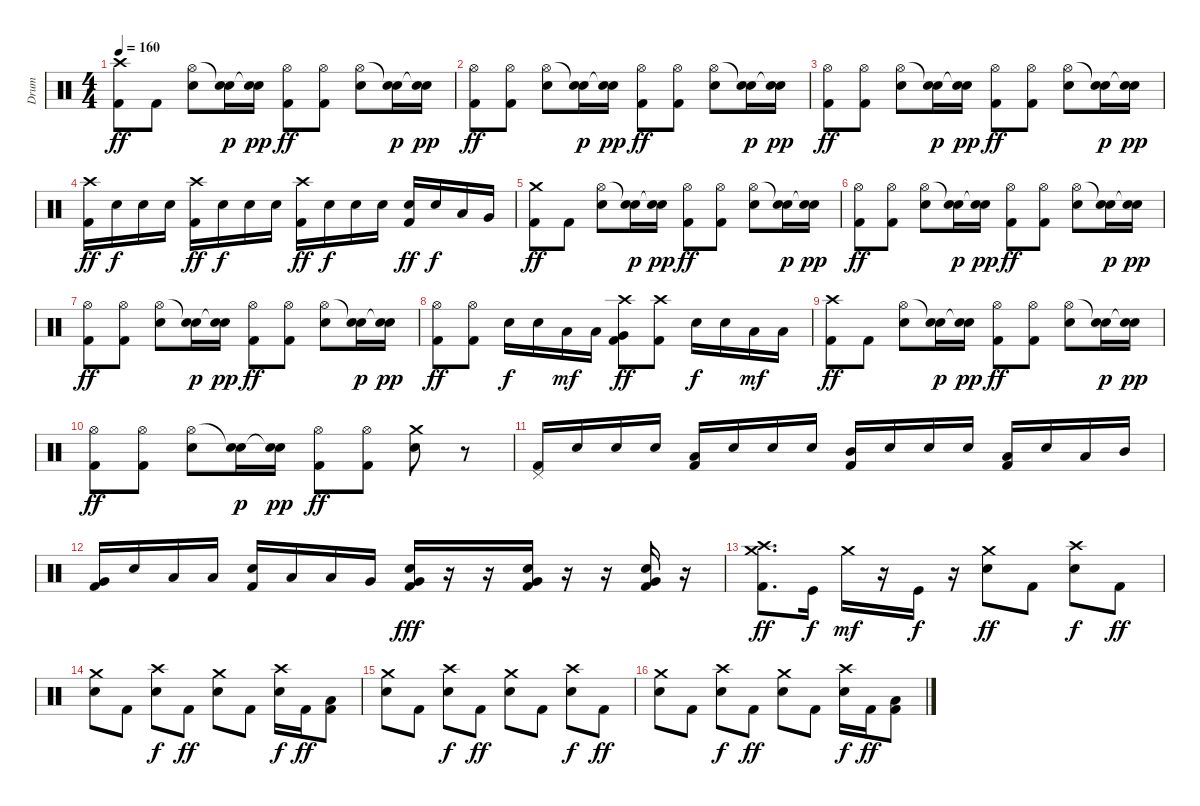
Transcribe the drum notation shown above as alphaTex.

\track ("Drum" "Drum") {instrument percussion}
\staff {score}
\articulation defaults
\ts (4 4)
\tempo 160
\clef neutral
\ks c
("Crash high (hit)" "Kick (hit) 2").8{dy ff} "Kick (hit) 2".8 ("Electric Snare (hit)" "Hi-Hat (open)").8 ("Electric Snare (hit)" "Snare (hit)"{t}).16{dy p} ("Electric Snare (hit)" "Snare (hit)"{t}).16{dy pp} ("Hi-Hat (open)" "Kick (hit) 2").8{dy ff} ("Hi-Hat (open)" "Kick (hit) 2").8 ("Electric Snare (hit)" "Hi-Hat (open)").8 ("Electric Snare (hit)" "Snare (hit)"{t}).16{dy p} ("Electric Snare (hit)" "Snare (hit)"{t}).16{dy pp} |
("Hi-Hat (open)" "Kick (hit) 2").8{dy ff} ("Hi-Hat (open)" "Kick (hit) 2").8 ("Electric Snare (hit)" "Hi-Hat (open)").8 ("Electric Snare (hit)" "Snare (hit)"{t}).16{dy p} ("Electric Snare (hit)" "Snare (hit)"{t}).16{dy pp} ("Hi-Hat (open)" "Kick (hit) 2").8{dy ff} ("Hi-Hat (open)" "Kick (hit) 2").8 ("Electric Snare (hit)" "Hi-Hat (open)").8 ("Electric Snare (hit)" "Snare (hit)"{t}).16{dy p} ("Electric Snare (hit)" "Snare (hit)"{t}).16{dy pp} |
("Hi-Hat (open)" "Kick (hit) 2").8{dy ff} ("Hi-Hat (open)" "Kick (hit) 2").8 ("Electric Snare (hit)" "Hi-Hat (open)").8 ("Electric Snare (hit)" "Snare (hit)"{t}).16{dy p} ("Electric Snare (hit)" "Snare (hit)"{t}).16{dy pp} ("Hi-Hat (open)" "Kick (hit) 2").8{dy ff} ("Hi-Hat (open)" "Kick (hit) 2").8 ("Electric Snare (hit)" "Hi-Hat (open)").8 ("Electric Snare (hit)" "Snare (hit)"{t}).16{dy p} ("Electric Snare (hit)" "Snare (hit)"{t}).16{dy pp} |
("Crash high (hit)" "Kick (hit) 2").16{dy ff} "Electric Snare (hit)".16{dy f} "Electric Snare (hit)".16 "Electric Snare (hit)".16 ("Crash high (hit)" "Kick (hit) 2").16{dy ff} "Electric Snare (hit)".16{dy f} "Electric Snare (hit)".16 "Electric Snare (hit)".16 ("Crash high (hit)" "Kick (hit) 2").16{dy ff} "Electric Snare (hit)".16{dy f} "Electric Snare (hit)".16 "Electric Snare (hit)".16 ("Electric Snare (hit)" "Kick (hit) 2").16{dy ff} "Electric Snare (hit)".16{dy f} "Low Tom (hit)".16 "Very Low Tom (hit)".16 |
("Crash medium (hit)" "Kick (hit) 2").8{dy ff} "Kick (hit) 2".8 ("Electric Snare (hit)" "Hi-Hat (open)").8 ("Electric Snare (hit)" "Snare (hit)"{t}).16{dy p} ("Electric Snare (hit)" "Snare (hit)"{t}).16{dy pp} ("Hi-Hat (open)" "Kick (hit) 2").8{dy ff} ("Hi-Hat (open)" "Kick (hit) 2").8 ("Electric Snare (hit)" "Hi-Hat (open)").8 ("Electric Snare (hit)" "Snare (hit)"{t}).16{dy p} ("Electric Snare (hit)" "Snare (hit)"{t}).16{dy pp} |
("Hi-Hat (open)" "Kick (hit) 2").8{dy ff} ("Hi-Hat (open)" "Kick (hit) 2").8 ("Electric Snare (hit)" "Hi-Hat (open)").8 ("Electric Snare (hit)" "Snare (hit)"{t}).16{dy p} ("Electric Snare (hit)" "Snare (hit)"{t}).16{dy pp} ("Hi-Hat (open)" "Kick (hit) 2").8{dy ff} ("Hi-Hat (open)" "Kick (hit) 2").8 ("Electric Snare (hit)" "Hi-Hat (open)").8 ("Electric Snare (hit)" "Snare (hit)"{t}).16{dy p} ("Electric Snare (hit)" "Snare (hit)"{t}).16{dy pp} |
("Hi-Hat (open)" "Kick (hit) 2").8{dy ff} ("Hi-Hat (open)" "Kick (hit) 2").8 ("Electric Snare (hit)" "Hi-Hat (open)").8 ("Electric Snare (hit)" "Snare (hit)"{t}).16{dy p} ("Electric Snare (hit)" "Snare (hit)"{t}).16{dy pp} ("Hi-Hat (open)" "Kick (hit) 2").8{dy ff} ("Hi-Hat (open)" "Kick (hit) 2").8 ("Electric Snare (hit)" "Hi-Hat (open)").8 ("Electric Snare (hit)" "Snare (hit)"{t}).16{dy p} ("Electric Snare (hit)" "Snare (hit)"{t}).16{dy pp} |
("Hi-Hat (open)" "Kick (hit) 2").8{dy ff} ("Hi-Hat (open)" "Kick (hit) 2").8 "Electric Snare (hit)".16{dy f} "Electric Snare (hit)".16 "Low Tom (hit)".16{dy mf} "Low Tom (hit)".16 ("Crash high (hit)" "Very Low Tom (hit)" "Kick (hit) 2").8{dy ff} ("Crash high (hit)" "Kick (hit) 2").8 "Electric Snare (hit)".16{dy f} "Electric Snare (hit)".16 "Low Tom (hit)".16{dy mf} "Low Tom (hit)".16 |
("Crash high (hit)" "Kick (hit) 2").8{dy ff} "Kick (hit) 2".8 ("Electric Snare (hit)" "Hi-Hat (open)").8 ("Electric Snare (hit)" "Snare (hit)"{t}).16{dy p} ("Electric Snare (hit)" "Snare (hit)"{t}).16{dy pp} ("Hi-Hat (open)" "Kick (hit) 2").8{dy ff} ("Hi-Hat (open)" "Kick (hit) 2").8 ("Electric Snare (hit)" "Hi-Hat (open)").8 ("Electric Snare (hit)" "Snare (hit)"{t}).16{dy p} ("Electric Snare (hit)" "Snare (hit)"{t}).16{dy pp} |
("Hi-Hat (open)" "Kick (hit) 2").8{dy ff} ("Hi-Hat (open)" "Kick (hit) 2").8 ("Electric Snare (hit)" "Hi-Hat (open)").8 ("Electric Snare (hit)" "Snare (hit)"{t}).16{dy p} ("Electric Snare (hit)" "Snare (hit)"{t}).16{dy pp} ("Hi-Hat (open)" "Kick (hit) 2").8{dy ff} ("Hi-Hat (open)" "Kick (hit) 2").8 ("Crash medium (hit)" "Electric Snare (hit)").8 r.8 |
("Pedal Hi-Hat (hit)" "Kick (hit) 2").16 "Electric Snare (hit)".16 "Electric Snare (hit)".16 "Electric Snare (hit)".16 ("Low Tom (hit)" "Kick (hit) 2").16 "Electric Snare (hit)".16 "Electric Snare (hit)".16 "Electric Snare (hit)".16 ("Mid Tom (hit)" "Kick (hit) 2").16 "Electric Snare (hit)".16 "Electric Snare (hit)".16 "Electric Snare (hit)".16 ("Low Tom (hit)" "Kick (hit) 2").16 "Electric Snare (hit)".16 "Low Tom (hit)".16 "Mid Tom (hit)".16 |
("Very Low Tom (hit)" "Kick (hit) 2").16 "Electric Snare (hit)".16 "Low Tom (hit)".16 "Low Tom (hit)".16 ("Electric Snare (hit)" "Kick (hit) 2").16 "Low Tom (hit)".16 "Low Tom (hit)".16 "Very Low Tom (hit)".16 ("Very Low Tom (hit)" "Electric Snare (hit)" "Kick (hit) 2").16{dy fff} r.16 r.16 ("Very Low Tom (hit)" "Electric Snare (hit)" "Kick (hit) 2").16 r.16 r.16 ("Very Low Tom (hit)" "Electric Snare (hit)" "Kick (hit) 2").16 r.16 |
("Crash medium (hit)" "Crash high (hit)" "Kick (hit) 2").8{d dy ff} "Kick (hit)".16{dy f} "Crash medium (hit)".16{dy mf} r.16 "Kick (hit)".16{dy f} r.16 ("Crash medium (hit)" "Electric Snare (hit)").8{dy ff} "Kick (hit) 2".8 ("Crash high (hit)" "Electric Snare (hit)").8{dy f} "Kick (hit) 2".8{dy ff} |
("Crash medium (hit)" "Electric Snare (hit)").8 "Kick (hit) 2".8 ("Crash high (hit)" "Electric Snare (hit)").8{dy f} "Kick (hit) 2".8{dy ff} ("Crash medium (hit)" "Electric Snare (hit)").8 "Kick (hit) 2".8 ("Crash high (hit)" "Electric Snare (hit)").16{dy f} "Kick (hit) 2".16{dy ff} ("Low Tom (hit)" "Kick (hit) 2").8 |
("Crash medium (hit)" "Electric Snare (hit)").8 "Kick (hit) 2".8 ("Crash high (hit)" "Electric Snare (hit)").8{dy f} "Kick (hit) 2".8{dy ff} ("Crash medium (hit)" "Electric Snare (hit)").8 "Kick (hit) 2".8 ("Crash high (hit)" "Electric Snare (hit)").8{dy f} "Kick (hit) 2".8{dy ff} |
("Crash medium (hit)" "Electric Snare (hit)").8 "Kick (hit) 2".8 ("Crash high (hit)" "Electric Snare (hit)").8{dy f} "Kick (hit) 2".8{dy ff} ("Crash medium (hit)" "Electric Snare (hit)").8 "Kick (hit) 2".8 ("Crash high (hit)" "Electric Snare (hit)").16{dy f} "Kick (hit) 2".16{dy ff} ("Low Tom (hit)" "Kick (hit) 2").8
